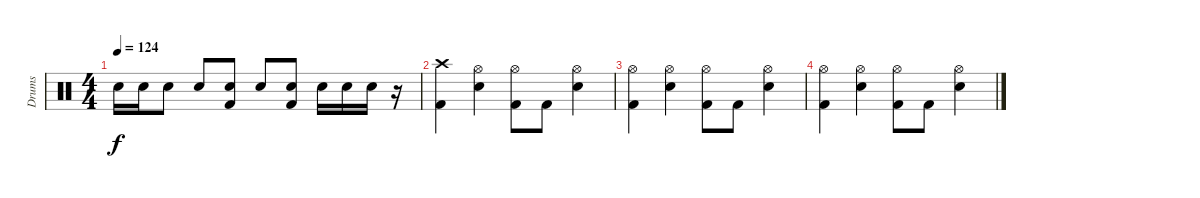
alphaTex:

\track ("Drums" "Drums") {instrument percussion}
\staff {score}
\articulation defaults
\ts (4 4)
\tempo 124
\clef neutral
\ks c "Snare (hit) 2".16{dy f volume 4} "Snare (hit) 2".16 "Snare (hit) 2".8 "Snare (hit) 2".8
("Snare (hit) 2" "Kick (hit) 2").8 "Snare (hit) 2".8 ("Snare (hit) 2" "Kick (hit) 2").8 "Snare (hit) 2".16 "Snare (hit) 2".16 "Snare (hit) 2".16 r.16 |
("Crash high (hit)" "Kick (hit) 2").4{volume 3} ("Hi-Hat (open)" "Snare (hit) 2").4 ("Hi-Hat (open)" "Kick (hit) 2").8 "Kick (hit) 2".8 ("Hi-Hat (open)" "Snare (hit) 2").4 |
("Hi-Hat (open)" "Kick (hit) 2").4{volume 2} ("Hi-Hat (open)" "Snare (hit) 2").4 ("Hi-Hat (open)" "Kick (hit) 2").8 "Kick (hit) 2".8 ("Hi-Hat (open)" "Snare (hit) 2").4 |
("Hi-Hat (open)" "Kick (hit) 2").4{volume 1} ("Hi-Hat (open)" "Snare (hit) 2").4 ("Hi-Hat (open)" "Kick (hit) 2").8 "Kick (hit) 2".8 ("Hi-Hat (open)" "Snare (hit) 2").4
